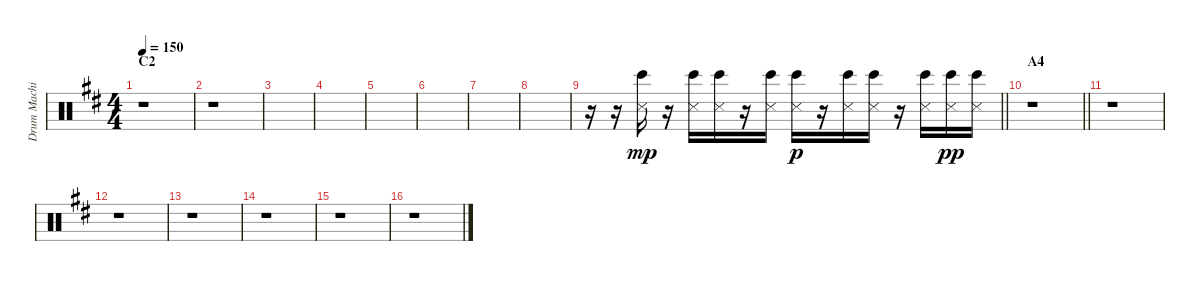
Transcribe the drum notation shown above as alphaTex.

\track ("Drum Machine" "Drum Machi") {instrument percussion}
\staff {score}
\articulation defaults
\ts (4 4)
\section ("" "C2")
\tempo 150
\clef neutral
\ks d
r.1{dy pp} |
r.1 |
|
|
|
|
|
|
\barLineRight lightlight
r.16 r.16 ("Bongo High (hit)" "Metronome (hit)").16{dy mp} r.16 ("Bongo High (hit)" "Metronome (hit)").16 ("Bongo High (hit)" "Metronome (hit)").16 r.16 ("Bongo High (hit)" "Metronome (hit)").16 ("Bongo High (hit)" "Metronome (hit)").16{dy p} r.16 ("Bongo High (hit)" "Metronome (hit)").16 ("Bongo High (hit)" "Metronome (hit)").16 r.16 ("Bongo High (hit)" "Metronome (hit)").16 ("Bongo High (hit)" "Metronome (hit)").16{dy pp} ("Bongo High (hit)" "Metronome (hit)").16 |
\section ("" "A4")
\barLineRight lightlight
r.1 |
r.1 |
r.1 |
r.1 |
r.1 |
r.1 |
r.1
